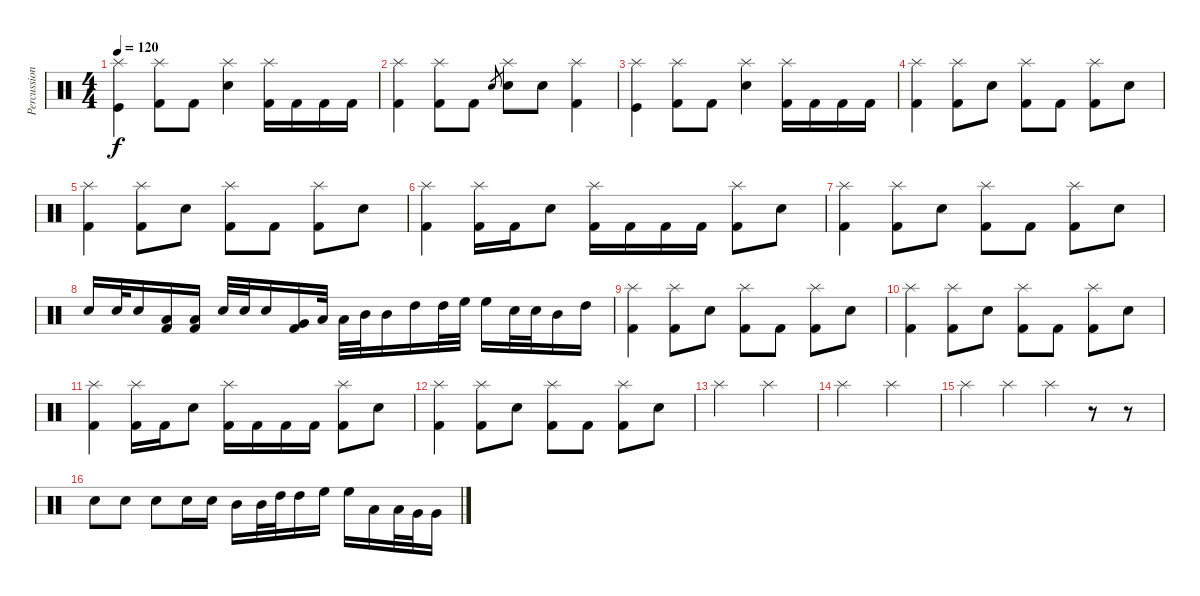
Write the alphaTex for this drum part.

\track ("Percussion" "Percussion") {instrument percussion}
\staff {score}
\articulation defaults
\ts (4 4)
\tempo 120
\clef neutral
\ks c
("Splash (hit)" "Kick (hit)").4{dy f} ("Splash (hit)" "Kick (hit) 2").8 "Kick (hit) 2".8 ("Splash (hit)" "Electric Snare (hit)").4 ("Splash (hit)" "Kick (hit) 2").16 "Kick (hit) 2".16 "Kick (hit) 2".16 "Kick (hit) 2".16 |
("Splash (hit)" "Kick (hit) 2").4 ("Splash (hit)" "Kick (hit) 2").8 "Kick (hit) 2".8 "Electric Snare (hit)".8{gr} ("Splash (hit)" "Electric Snare (hit)").8 "Electric Snare (hit)".8 ("Splash (hit)" "Kick (hit) 2").4 |
("Splash (hit)" "Kick (hit)").4 ("Splash (hit)" "Kick (hit) 2").8 "Kick (hit) 2".8 ("Splash (hit)" "Electric Snare (hit)").4 ("Splash (hit)" "Kick (hit) 2").16 "Kick (hit) 2".16 "Kick (hit) 2".16 "Kick (hit) 2".16 |
("Splash (hit)" "Kick (hit) 2").4 ("Splash (hit)" "Kick (hit) 2").8 "Electric Snare (hit)".8 ("Splash (hit)" "Kick (hit) 2").8 "Kick (hit) 2".8 ("Splash (hit)" "Kick (hit) 2").8 "Electric Snare (hit)".8 |
("Splash (hit)" "Kick (hit) 2").4 ("Splash (hit)" "Kick (hit) 2").8 "Electric Snare (hit)".8 ("Splash (hit)" "Kick (hit) 2").8 "Kick (hit) 2".8 ("Splash (hit)" "Kick (hit) 2").8 "Electric Snare (hit)".8 |
("Splash (hit)" "Kick (hit) 2").4 ("Splash (hit)" "Kick (hit) 2").16 "Kick (hit) 2".16 "Electric Snare (hit)".8 ("Splash (hit)" "Kick (hit) 2").16 "Kick (hit) 2".16 "Kick (hit) 2".16 "Kick (hit) 2".16 ("Splash (hit)" "Kick (hit) 2").8 "Electric Snare (hit)".8 |
("Splash (hit)" "Kick (hit) 2").4 ("Splash (hit)" "Kick (hit) 2").8 "Electric Snare (hit)".8 ("Splash (hit)" "Kick (hit) 2").8 "Kick (hit) 2".8 ("Splash (hit)" "Kick (hit) 2").8 "Electric Snare (hit)".8 |
"Electric Snare (hit)".16 "Electric Snare (hit)".32 "Electric Snare (hit)".16 ("Kick (hit) 2" "Low Floor Tom (hit)").16 ("Kick (hit) 2" "Low Floor Tom (hit)").16 "Electric Snare (hit)".32 "Electric Snare (hit)".32 "Electric Snare (hit)".16 ("Kick (hit) 2" "Very Low Tom (hit)").16 "Low Tom (hit)".32 "Low Tom (hit)".32 "Mid Tom (hit)".32 "Mid Tom (hit)".16 "High Tom (hit)".16 "High Tom (hit)".32 "High Floor Tom (hit)".32 "High Floor Tom (hit)".16 "Electric Snare (hit)".32 "Electric Snare (hit)".32 "Mid Tom (hit)".16 "High Tom (hit)".16 |
("Splash (hit)" "Kick (hit) 2").4 ("Splash (hit)" "Kick (hit) 2").8 "Electric Snare (hit)".8 ("Splash (hit)" "Kick (hit) 2").8 "Kick (hit) 2".8 ("Splash (hit)" "Kick (hit) 2").8 "Electric Snare (hit)".8 |
("Splash (hit)" "Kick (hit) 2").4 ("Splash (hit)" "Kick (hit) 2").8 "Electric Snare (hit)".8 ("Splash (hit)" "Kick (hit) 2").8 "Kick (hit) 2".8 ("Splash (hit)" "Kick (hit) 2").8 "Electric Snare (hit)".8 |
("Splash (hit)" "Kick (hit) 2").4 ("Splash (hit)" "Kick (hit) 2").16 "Kick (hit) 2".16 "Electric Snare (hit)".8 ("Splash (hit)" "Kick (hit) 2").16 "Kick (hit) 2".16 "Kick (hit) 2".16 "Kick (hit) 2".16 ("Splash (hit)" "Kick (hit) 2").8 "Electric Snare (hit)".8 |
("Splash (hit)" "Kick (hit) 2").4 ("Splash (hit)" "Kick (hit) 2").8 "Electric Snare (hit)".8 ("Splash (hit)" "Kick (hit) 2").8 "Kick (hit) 2".8 ("Splash (hit)" "Kick (hit) 2").8 "Electric Snare (hit)".8 |
"Splash (hit)".2 "Splash (hit)".2 |
"Splash (hit)".2 "Splash (hit)".2 |
"Splash (hit)".4 "Splash (hit)".4 "Splash (hit)".4 r.8{volume 6} r.8{volume 15} |
"Electric Snare (hit)".8 "Electric Snare (hit)".8 "Electric Snare (hit)".8 "Electric Snare (hit)".16 "Electric Snare (hit)".16 "Mid Tom (hit)".16 "Mid Tom (hit)".32 "High Tom (hit)".32 "High Tom (hit)".16 "High Floor Tom (hit)".16 "High Floor Tom (hit)".16 "Low Floor Tom (hit)".16 "Low Floor Tom (hit)".32 "Very Low Tom (hit)".32 "Very Low Tom (hit)".16
